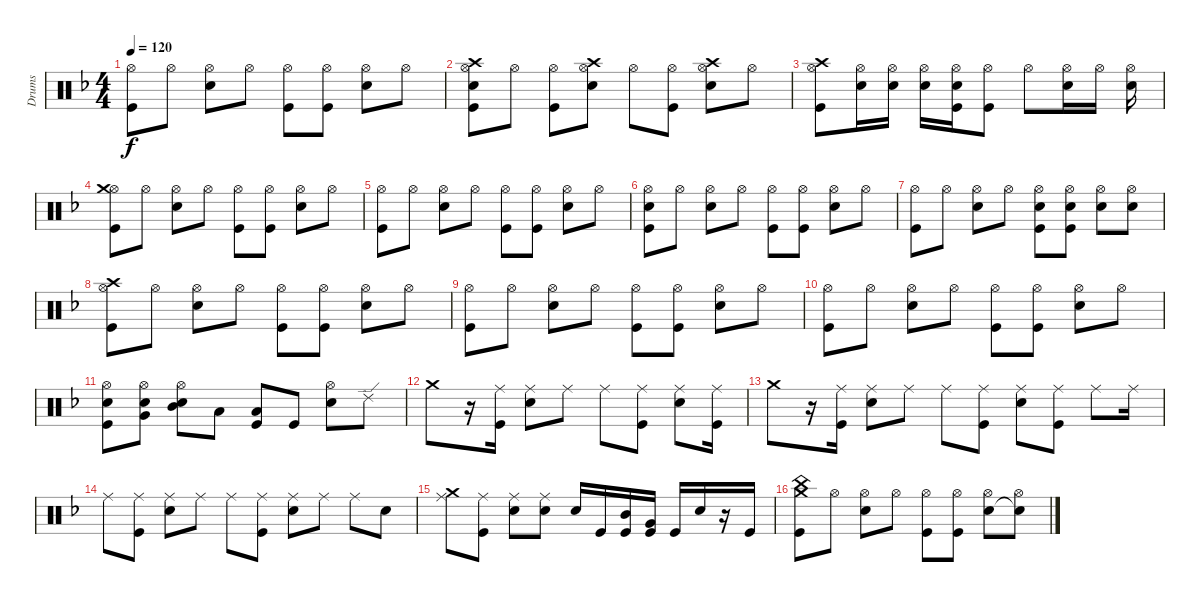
\track ("Drums" "Drums") {instrument percussion}
\staff {score}
\articulation defaults
\ts (4 4)
\tempo 120
\clef neutral
\ks f
("Hi-Hat (open)" "Kick (hit)").8{dy f} "Hi-Hat (open)".8 ("Hi-Hat (open)" "Snare (hit) 2").8 "Hi-Hat (open)".8 ("Hi-Hat (open)" "Kick (hit)").8 ("Hi-Hat (open)" "Kick (hit)").8 ("Hi-Hat (open)" "Snare (hit) 2").8 "Hi-Hat (open)".8 |
("Hi-Hat (open)" "Crash high (hit)" "Snare (hit) 2" "Kick (hit)").8 "Hi-Hat (open)".8 ("Hi-Hat (open)" "Kick (hit)").8 ("Hi-Hat (open)" "Crash high (hit)" "Snare (hit) 2").8 "Hi-Hat (open)".8 ("Hi-Hat (open)" "Kick (hit)").8 ("Hi-Hat (open)" "Crash high (hit)" "Snare (hit) 2").8 "Hi-Hat (open)".8 |
("Hi-Hat (open)" "Crash high (hit)" "Kick (hit)").8 ("Hi-Hat (open)" "Snare (hit) 2").16 ("Hi-Hat (open)" "Snare (hit) 2").16 ("Hi-Hat (open)" "Snare (hit) 2").16 ("Hi-Hat (open)" "Snare (hit) 2" "Kick (hit)").16 ("Hi-Hat (open)" "Kick (hit)").8 "Hi-Hat (open)".8 ("Hi-Hat (open)" "Snare (hit) 2").16 "Hi-Hat (open)".16 ("Hi-Hat (open)" "Snare (hit) 2").16 |
("Hi-Hat (open)" "Crash medium (hit)" "Kick (hit)").8 "Hi-Hat (open)".8 ("Hi-Hat (open)" "Snare (hit) 2").8 "Hi-Hat (open)".8 ("Hi-Hat (open)" "Kick (hit)").8 ("Hi-Hat (open)" "Kick (hit)").8 ("Hi-Hat (open)" "Snare (hit) 2").8 "Hi-Hat (open)".8 |
("Hi-Hat (open)" "Kick (hit)").8 "Hi-Hat (open)".8 ("Hi-Hat (open)" "Snare (hit) 2").8 "Hi-Hat (open)".8 ("Hi-Hat (open)" "Kick (hit)").8 ("Hi-Hat (open)" "Kick (hit)").8 ("Hi-Hat (open)" "Snare (hit) 2").8 "Hi-Hat (open)".8 |
("Hi-Hat (open)" "Snare (hit) 2" "Kick (hit)").8 "Hi-Hat (open)".8 ("Hi-Hat (open)" "Snare (hit) 2").8 "Hi-Hat (open)".8 ("Hi-Hat (open)" "Kick (hit)").8 ("Hi-Hat (open)" "Kick (hit)").8 ("Hi-Hat (open)" "Snare (hit) 2").8 "Hi-Hat (open)".8 |
("Hi-Hat (open)" "Kick (hit)").8 "Hi-Hat (open)".8 ("Hi-Hat (open)" "Snare (hit) 2").8 "Hi-Hat (open)".8 ("Hi-Hat (open)" "Snare (hit) 2" "Kick (hit)").8 ("Hi-Hat (open)" "Snare (hit) 2" "Kick (hit)").8 ("Hi-Hat (open)" "Snare (hit) 2").8 ("Hi-Hat (open)" "Snare (hit) 2").8 |
("Hi-Hat (open)" "Crash high (hit)" "Kick (hit)").8 "Hi-Hat (open)".8 ("Hi-Hat (open)" "Snare (hit) 2").8 "Hi-Hat (open)".8 ("Hi-Hat (open)" "Kick (hit)").8 ("Hi-Hat (open)" "Kick (hit)").8 ("Hi-Hat (open)" "Snare (hit) 2").8 "Hi-Hat (open)".8 |
("Hi-Hat (open)" "Kick (hit)").8 "Hi-Hat (open)".8 ("Hi-Hat (open)" "Snare (hit) 2").8 "Hi-Hat (open)".8 ("Hi-Hat (open)" "Kick (hit)").8 ("Hi-Hat (open)" "Kick (hit)").8 ("Hi-Hat (open)" "Snare (hit) 2").8 "Hi-Hat (open)".8 |
("Hi-Hat (open)" "Kick (hit)").8 "Hi-Hat (open)".8 ("Hi-Hat (open)" "Snare (hit) 2").8 "Hi-Hat (open)".8 ("Hi-Hat (open)" "Kick (hit)").8 ("Hi-Hat (open)" "Kick (hit)").8 ("Hi-Hat (open)" "Snare (hit) 2").8 "Hi-Hat (open)".8 |
("Hi-Hat (open)" "Snare (hit) 2" "Kick (hit)").8 ("Hi-Hat (open)" "Snare (hit) 2" "Very Low Tom (hit)").8 ("Hi-Hat (open)" "Snare (hit) 2" "Mid Tom (hit)").8 "Low Tom (hit)".8 ("Low Tom (hit)" "Kick (hit)").8 "Kick (hit)".8 ("Hi-Hat (open)" "Snare (hit) 2").8 "Ride (edge) 2".8 |
"Crash medium (hit)".8 r.16 ("Ride (middle)" "Kick (hit)").16 ("Ride (middle)" "Snare (hit) 2").8 "Ride (middle)".8 "Ride (middle)".8 ("Ride (middle)" "Kick (hit)").8 ("Ride (middle)" "Snare (hit) 2").8 ("Ride (middle)" "Kick (hit)").16 |
"Crash medium (hit)".8 r.16 ("Ride (middle)" "Kick (hit)").16 ("Ride (middle)" "Snare (hit) 2").8 "Ride (middle)".8 "Ride (middle)".8 ("Ride (middle)" "Kick (hit)").8 ("Ride (middle)" "Snare (hit) 2").8 ("Ride (middle)" "Kick (hit)").8 "Ride (middle)".8 "Ride (middle)".16 |
"Ride (middle)".8 ("Ride (middle)" "Kick (hit)").8 ("Ride (middle)" "Snare (hit) 2").8 "Ride (middle)".8 "Ride (middle)".8 ("Ride (middle)" "Kick (hit)").8 ("Ride (middle)" "Snare (hit) 2").8 "Ride (middle)".8 "Ride (middle)".8 "Snare (hit)".8 |
("Ride (middle)" "Crash medium (hit)").8 ("Ride (middle)" "Kick (hit)").8 ("Ride (middle)" "Snare (hit) 2").8 ("Ride (middle)" "Snare (hit) 2").8 "Snare (hit) 2".16 "Kick (hit)".16 ("Mid Tom (hit)" "Kick (hit)").16 ("Very Low Tom (hit)" "Kick (hit)").16 "Kick (hit)".16 "Snare (hit) 2".16 r.16 "Kick (hit)".16 |
("Crash medium (hit)" "China (hit)" "Kick (hit)").8 "Hi-Hat (open)".8 ("Hi-Hat (open)" "Snare (hit) 2").8 "Hi-Hat (open)".8 ("Hi-Hat (open)" "Kick (hit)").8 ("Hi-Hat (open)" "Kick (hit)").8 ("Hi-Hat (open)" "Snare (hit) 2").8 ("Hi-Hat (open)" "Snare (hit)"{t}).8
